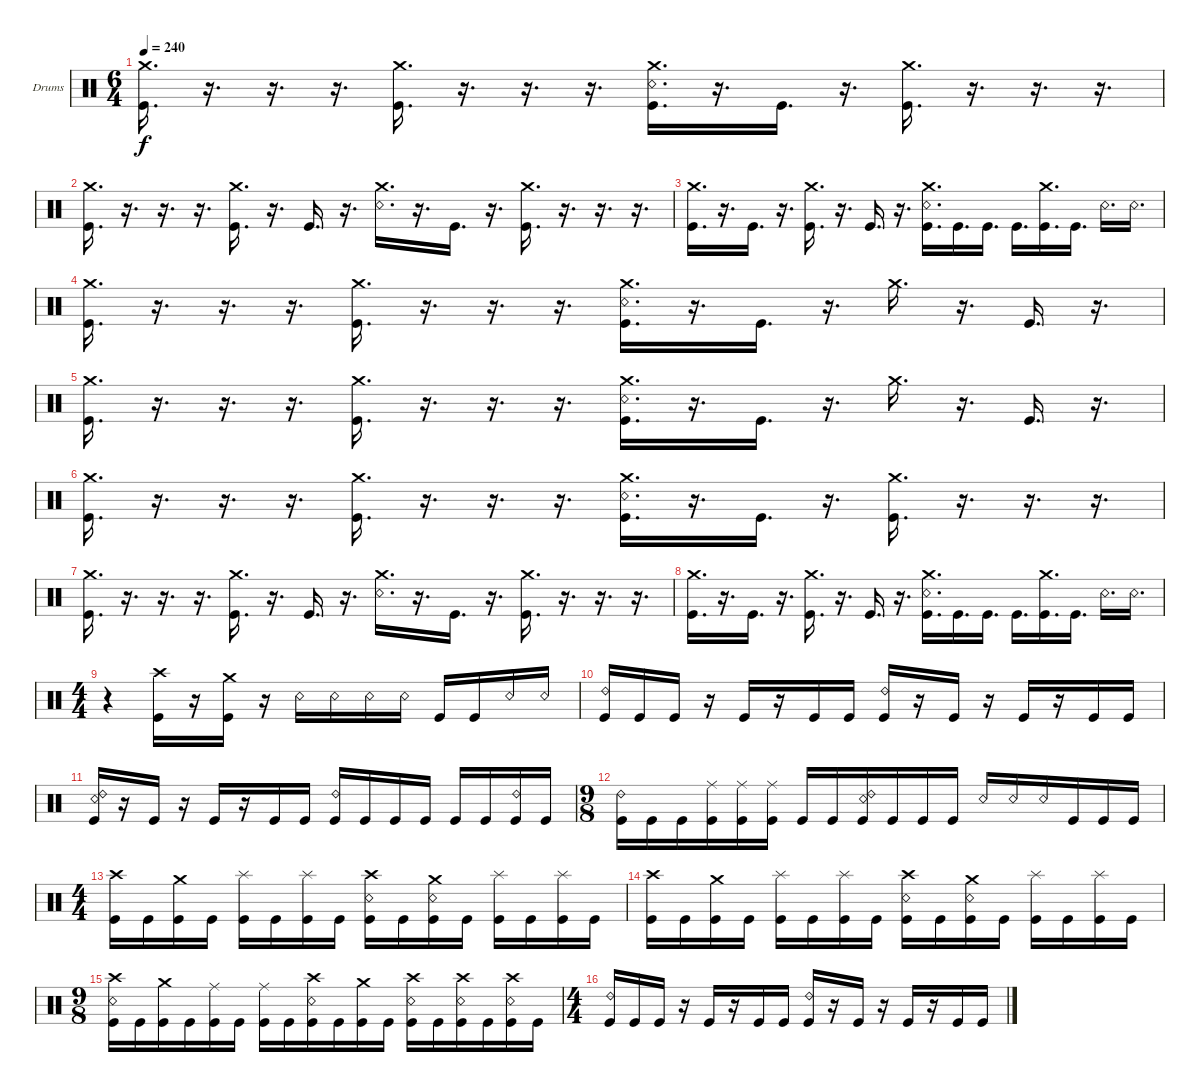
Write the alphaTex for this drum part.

\bracketExtendMode groupsimilarinstruments
\firstSystemTrackNameOrientation horizontal
\otherSystemsTrackNameOrientation horizontal
\track ("Drumkit" "Drums") {instrument percussion}
\staff {score}
\articulation defaults
\ts (6 4)
\tempo 240
\clef neutral
\ks c
("Crash medium (hit)" "Kick (hit)").16{d dy f} r.16{d} r.16{d} r.16{d} ("Kick (hit)" "Crash medium (hit)").16{d} r.16{d} r.16{d} r.16{d} ("Crash medium (hit)" "Kick (hit)" "Snare (rim shot)").16{d} r.16{d} "Kick (hit)".16{d} r.16{d} ("Kick (hit)" "Crash medium (hit)").16{d} r.16{d} r.16{d} r.16{d} |
("Crash medium (hit)" "Kick (hit)").16{d} r.16{d} r.16{d} r.16{d} ("Kick (hit)" "Crash medium (hit)").16{d} r.16{d} "Kick (hit)".16{d} r.16{d} ("Crash medium (hit)" "Snare (rim shot)").16{d} r.16{d} "Kick (hit)".16{d} r.16{d} ("Kick (hit)" "Crash medium (hit)").16{d} r.16{d} r.16{d} r.16{d} |
("Crash medium (hit)" "Kick (hit)").16{d} r.16{d} "Kick (hit)".16{d} r.16{d} ("Kick (hit)" "Crash medium (hit)").16{d} r.16{d} "Kick (hit)".16{d} r.16{d} ("Crash medium (hit)" "Kick (hit)" "Snare (rim shot)").16{d} "Kick (hit)".16{d} "Kick (hit)".16{d} "Kick (hit)".16{d} ("Kick (hit)" "Crash medium (hit)").16{d} "Kick (hit)".16{d} "Snare (rim shot)".16{d} "Snare (rim shot)".16{d} |
("Crash medium (hit)" "Kick (hit)").16{d} r.16{d} r.16{d} r.16{d} ("Kick (hit)" "Crash medium (hit)").16{d} r.16{d} r.16{d} r.16{d} ("Crash medium (hit)" "Kick (hit)" "Snare (rim shot)").16{d} r.16{d} "Kick (hit)".16{d} r.16{d} "Crash medium (hit)".16{d} r.16{d} "Kick (hit)".16{d} r.16{d} |
("Crash medium (hit)" "Kick (hit)").16{d} r.16{d} r.16{d} r.16{d} ("Kick (hit)" "Crash medium (hit)").16{d} r.16{d} r.16{d} r.16{d} ("Crash medium (hit)" "Kick (hit)" "Snare (rim shot)").16{d} r.16{d} "Kick (hit)".16{d} r.16{d} "Crash medium (hit)".16{d} r.16{d} "Kick (hit)".16{d} r.16{d} |
("Crash medium (hit)" "Kick (hit)").16{d} r.16{d} r.16{d} r.16{d} ("Kick (hit)" "Crash medium (hit)").16{d} r.16{d} r.16{d} r.16{d} ("Crash medium (hit)" "Kick (hit)" "Snare (rim shot)").16{d} r.16{d} "Kick (hit)".16{d} r.16{d} ("Kick (hit)" "Crash medium (hit)").16{d} r.16{d} r.16{d} r.16{d} |
("Crash medium (hit)" "Kick (hit)").16{d} r.16{d} r.16{d} r.16{d} ("Kick (hit)" "Crash medium (hit)").16{d} r.16{d} "Kick (hit)".16{d} r.16{d} ("Crash medium (hit)" "Snare (rim shot)").16{d} r.16{d} "Kick (hit)".16{d} r.16{d} ("Kick (hit)" "Crash medium (hit)").16{d} r.16{d} r.16{d} r.16{d} |
("Crash medium (hit)" "Kick (hit)").16{d} r.16{d} "Kick (hit)".16{d} r.16{d} ("Kick (hit)" "Crash medium (hit)").16{d} r.16{d} "Kick (hit)".16{d} r.16{d} ("Crash medium (hit)" "Kick (hit)" "Snare (rim shot)").16{d} "Kick (hit)".16{d} "Kick (hit)".16{d} "Kick (hit)".16{d} ("Kick (hit)" "Crash medium (hit)").16{d} "Kick (hit)".16{d} "Snare (rim shot)".16{d} "Snare (rim shot)".16{d} |
\ts (4 4)
r.4 ("Kick (hit)" "Crash high (hit)").16 r.16 ("Kick (hit)" "Crash medium (hit)").16 r.16 "Snare (rim shot)".16 "Snare (rim shot)".16 "Snare (rim shot)".16 "Snare (rim shot)".16 "Kick (hit)".16 "Kick (hit)".16 "Snare (rim shot)".16 "Snare (rim shot)".16 |
("Ride (bell) 2" "Kick (hit)").16 "Kick (hit)".16 "Kick (hit)".16 r.16 "Kick (hit)".16 r.16 "Kick (hit)".16 "Kick (hit)".16 ("Ride (bell) 2" "Kick (hit)").16 r.16 "Kick (hit)".16 r.16 "Kick (hit)".16 r.16 "Kick (hit)".16 "Kick (hit)".16 |
("Ride (bell) 2" "Kick (hit)" "Snare (rim shot)").16 r.16 "Kick (hit)".16 r.16 "Kick (hit)".16 r.16 "Kick (hit)".16 "Kick (hit)".16 ("Ride (bell) 2" "Kick (hit)").16 "Kick (hit)".16 "Kick (hit)".16 "Kick (hit)".16 "Kick (hit)".16 "Kick (hit)".16 ("Kick (hit)" "Ride (bell) 2").16 "Kick (hit)".16 |
\ts (9 8)
("Ride (bell) 2" "Kick (hit)").16 "Kick (hit)".16 "Kick (hit)".16 ("Ride (middle)" "Kick (hit)").16 ("Kick (hit)" "Ride (middle)").16 ("Ride (middle)" "Kick (hit)").16 "Kick (hit)".16 "Kick (hit)".16 ("Ride (bell) 2" "Kick (hit)" "Snare (rim shot)").16 "Kick (hit)".16 "Kick (hit)".16 "Kick (hit)".16 "Snare (rim shot)".16 "Snare (rim shot)".16 "Snare (rim shot)".16 "Kick (hit)".16 "Kick (hit)".16 "Kick (hit)".16 |
\ts (4 4)
("Kick (hit)" "Crash high (hit)").16 "Kick (hit)".16 ("Kick (hit)" "Crash medium (hit)").16 "Kick (hit)".16 ("Kick (hit)" "Splash (hit)").16 "Kick (hit)".16 ("Kick (hit)" "Splash (hit)").16 "Kick (hit)".16 ("Kick (hit)" "Crash high (hit)" "Snare (rim shot)").16 "Kick (hit)".16 ("Kick (hit)" "Crash medium (hit)" "Snare (rim shot)").16 "Kick (hit)".16 ("Kick (hit)" "Splash (hit)").16 "Kick (hit)".16 ("Kick (hit)" "Splash (hit)").16 "Kick (hit)".16 |
("Kick (hit)" "Crash high (hit)").16 "Kick (hit)".16 ("Kick (hit)" "Crash medium (hit)").16 "Kick (hit)".16 ("Kick (hit)" "Splash (hit)").16 "Kick (hit)".16 ("Kick (hit)" "Splash (hit)").16 "Kick (hit)".16 ("Kick (hit)" "Crash high (hit)" "Snare (rim shot)").16 "Kick (hit)".16 ("Kick (hit)" "Crash medium (hit)" "Snare (rim shot)").16 "Kick (hit)".16 ("Kick (hit)" "Splash (hit)").16 "Kick (hit)".16 ("Kick (hit)" "Splash (hit)").16 "Kick (hit)".16 |
\ts (9 8)
("Kick (hit)" "Crash high (hit)" "Snare (rim shot)").16 "Kick (hit)".16 ("Kick (hit)" "Crash medium (hit)").16 "Kick (hit)".16 ("Kick (hit)" "Ride (middle)").16 "Kick (hit)".16 ("Kick (hit)" "Ride (middle)").16 "Kick (hit)".16 ("Kick (hit)" "Crash high (hit)" "Snare (rim shot)").16 "Kick (hit)".16 ("Kick (hit)" "Crash medium (hit)").16 "Kick (hit)".16 ("Kick (hit)" "Crash high (hit)" "Snare (rim shot)").16 "Kick (hit)".16 ("Kick (hit)" "Crash high (hit)" "Snare (rim shot)").16 "Kick (hit)".16 ("Kick (hit)" "Crash high (hit)" "Snare (rim shot)").16 "Kick (hit)".16 |
\ts (4 4)
("Ride (bell) 2" "Kick (hit)").16 "Kick (hit)".16 "Kick (hit)".16 r.16 "Kick (hit)".16 r.16 "Kick (hit)".16 "Kick (hit)".16 ("Ride (bell) 2" "Kick (hit)").16 r.16 "Kick (hit)".16 r.16 "Kick (hit)".16 r.16 "Kick (hit)".16 "Kick (hit)".16
